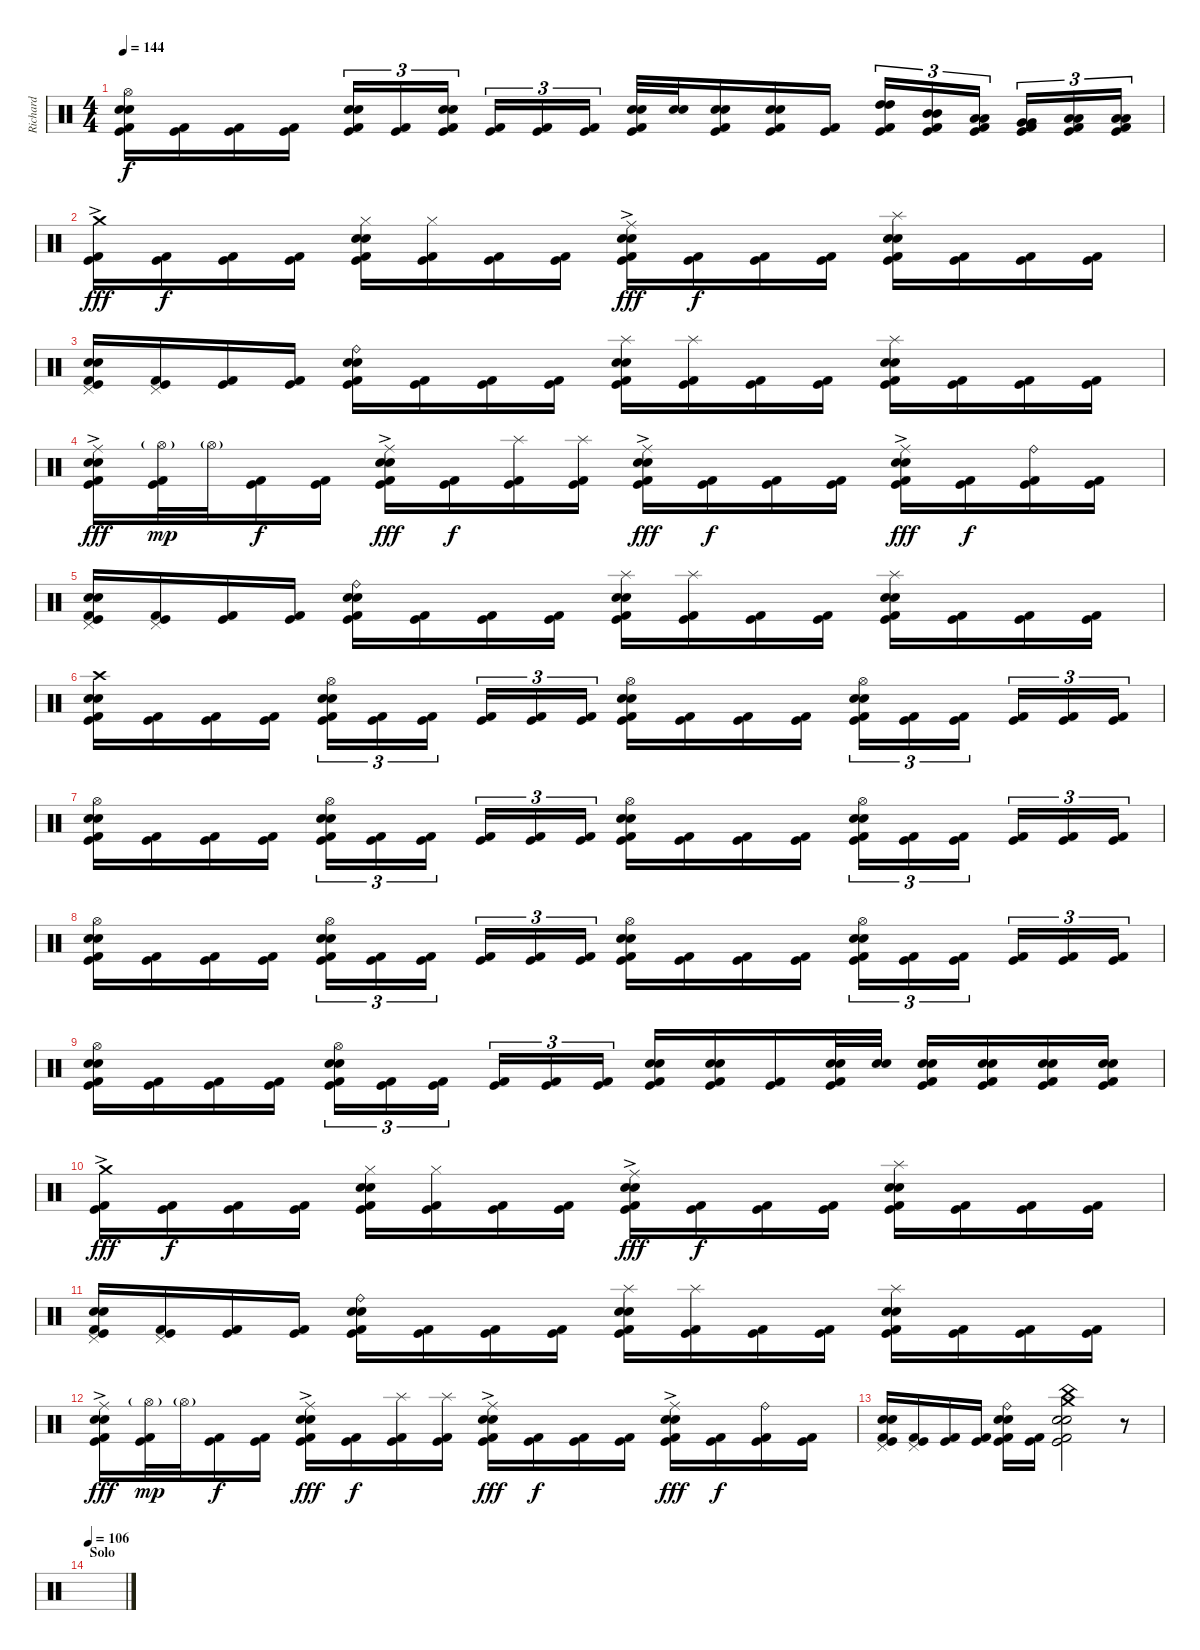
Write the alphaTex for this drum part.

\track ("Richard" "Richard") {instrument percussion}
\staff {score}
\articulation defaults
\ts (4 4)
\tempo 144
\clef neutral
\ks c
("Hi-Hat (open)" "Snare (hit) 2" "Electric Snare (hit)" "Kick (hit) 2" "Kick (hit)").16{dy f} ("Kick (hit) 2" "Kick (hit)").16 ("Kick (hit) 2" "Kick (hit)").16 ("Kick (hit) 2" "Kick (hit)").16 ("Snare (hit) 2" "Electric Snare (hit)" "Kick (hit) 2" "Kick (hit)").16{tu (3 2)} ("Kick (hit) 2" "Kick (hit)").16{tu (3 2)} ("Snare (hit) 2" "Electric Snare (hit)" "Kick (hit) 2" "Kick (hit)").16{tu (3 2)} ("Kick (hit) 2" "Kick (hit)").16{tu (3 2)} ("Kick (hit) 2" "Kick (hit)").16{tu (3 2)} ("Kick (hit) 2" "Kick (hit)").16{tu (3 2)} ("Snare (hit) 2" "Electric Snare (hit)" "Kick (hit) 2" "Kick (hit)").32 ("Snare (hit) 2" "Electric Snare (hit)").32 ("Snare (hit) 2" "Electric Snare (hit)" "Kick (hit) 2" "Kick (hit)").16 ("Snare (hit) 2" "Electric Snare (hit)" "Kick (hit) 2" "Kick (hit)").16 ("Kick (hit) 2" "Kick (hit)").16 ("High Tom (hit)" "High Tom (hit)" "Kick (hit) 2" "Kick (hit)").16{tu (3 2)} ("Mid Tom (hit)" "Mid Tom (hit)" "Kick (hit) 2" "Kick (hit)").16{tu (3 2)} ("Low Tom (hit)" "Low Tom (hit)" "Kick (hit) 2" "Kick (hit)").16{tu (3 2)} ("Very Low Tom (hit)" "Very Low Tom (hit)" "Kick (hit) 2" "Kick (hit)").16{tu (3 2)} ("Low Floor Tom (hit)" "Low Floor Tom (hit)" "Kick (hit) 2" "Kick (hit)").16{tu (3 2)} ("Low Floor Tom (hit)" "Low Floor Tom (hit)" "Kick (hit) 2" "Kick (hit)").16{tu (3 2)} |
("Crash medium (hit)"{ac} "Kick (hit) 2" "Kick (hit)").16{dy fff} ("Kick (hit) 2" "Kick (hit)").16{dy f} ("Kick (hit) 2" "Kick (hit)").16 ("Kick (hit) 2" "Kick (hit)").16 ("Hi-Hat (closed)" "Snare (hit) 2" "Electric Snare (hit)" "Kick (hit) 2" "Kick (hit)").16 ("Hi-Hat (closed)" "Kick (hit) 2" "Kick (hit)").16 ("Kick (hit) 2" "Kick (hit)").16 ("Kick (hit) 2" "Kick (hit)").16 ("Ride (middle)"{ac} "Snare (hit) 2" "Electric Snare (hit)" "Kick (hit) 2" "Kick (hit)").16{dy fff} ("Kick (hit) 2" "Kick (hit)").16{dy f} ("Kick (hit) 2" "Kick (hit)").16 ("Kick (hit) 2" "Kick (hit)").16 ("Splash (hit)" "Snare (hit) 2" "Electric Snare (hit)" "Kick (hit) 2" "Kick (hit)").16 ("Kick (hit) 2" "Kick (hit)").16 ("Kick (hit) 2" "Kick (hit)").16 ("Kick (hit) 2" "Kick (hit)").16 |
("Pedal Hi-Hat (hit)" "Snare (hit) 2" "Electric Snare (hit)" "Kick (hit) 2" "Kick (hit)").16 ("Pedal Hi-Hat (hit)" "Kick (hit) 2" "Kick (hit)").16 ("Kick (hit) 2" "Kick (hit)").16 ("Kick (hit) 2" "Kick (hit)").16 ("Ride (bell)" "Snare (hit) 2" "Electric Snare (hit)" "Kick (hit) 2" "Kick (hit)").16 ("Kick (hit) 2" "Kick (hit)").16 ("Kick (hit) 2" "Kick (hit)").16 ("Kick (hit) 2" "Kick (hit)").16 ("Splash (hit)" "Snare (hit) 2" "Electric Snare (hit)" "Kick (hit) 2" "Kick (hit)").16 ("Splash (hit)" "Kick (hit) 2" "Kick (hit)").16 ("Kick (hit) 2" "Kick (hit)").16 ("Kick (hit) 2" "Kick (hit)").16 ("Splash (hit)" "Snare (hit) 2" "Electric Snare (hit)" "Kick (hit) 2" "Kick (hit)").16 ("Kick (hit) 2" "Kick (hit)").16 ("Kick (hit) 2" "Kick (hit)").16 ("Kick (hit) 2" "Kick (hit)").16 |
("Ride (middle)"{ac} "Snare (hit) 2" "Electric Snare (hit)" "Kick (hit) 2" "Kick (hit)").16{dy fff} ("Hi-Hat (open)"{g} "Kick (hit) 2" "Kick (hit)").32{dy mp} "Hi-Hat (open)"{g}.32 ("Kick (hit) 2" "Kick (hit)").16{dy f} ("Kick (hit) 2" "Kick (hit)").16 ("Ride (middle)"{ac} "Snare (hit) 2" "Electric Snare (hit)" "Kick (hit) 2" "Kick (hit)").16{dy fff} ("Kick (hit) 2" "Kick (hit)").16{dy f} ("Splash (hit)" "Kick (hit) 2" "Kick (hit)").16 ("Splash (hit)" "Kick (hit) 2" "Kick (hit)").16 ("Ride (middle)"{ac} "Snare (hit) 2" "Electric Snare (hit)" "Kick (hit) 2" "Kick (hit)").16{dy fff} ("Kick (hit) 2" "Kick (hit)").16{dy f} ("Kick (hit) 2" "Kick (hit)").16 ("Kick (hit) 2" "Kick (hit)").16 ("Ride (middle)"{ac} "Snare (hit) 2" "Electric Snare (hit)" "Kick (hit) 2" "Kick (hit)").16{dy fff} ("Kick (hit) 2" "Kick (hit)").16{dy f} ("Ride (bell)" "Kick (hit) 2" "Kick (hit)").16 ("Kick (hit) 2" "Kick (hit)").16 |
("Pedal Hi-Hat (hit)" "Snare (hit) 2" "Electric Snare (hit)" "Kick (hit) 2" "Kick (hit)").16 ("Pedal Hi-Hat (hit)" "Kick (hit) 2" "Kick (hit)").16 ("Kick (hit) 2" "Kick (hit)").16 ("Kick (hit) 2" "Kick (hit)").16 ("Ride (bell)" "Snare (hit) 2" "Electric Snare (hit)" "Kick (hit) 2" "Kick (hit)").16 ("Kick (hit) 2" "Kick (hit)").16 ("Kick (hit) 2" "Kick (hit)").16 ("Kick (hit) 2" "Kick (hit)").16 ("Splash (hit)" "Snare (hit) 2" "Electric Snare (hit)" "Kick (hit) 2" "Kick (hit)").16 ("Splash (hit)" "Kick (hit) 2" "Kick (hit)").16 ("Kick (hit) 2" "Kick (hit)").16 ("Kick (hit) 2" "Kick (hit)").16 ("Splash (hit)" "Snare (hit) 2" "Electric Snare (hit)" "Kick (hit) 2" "Kick (hit)").16 ("Kick (hit) 2" "Kick (hit)").16 ("Kick (hit) 2" "Kick (hit)").16 ("Kick (hit) 2" "Kick (hit)").16 |
("Crash high (hit)" "Snare (hit) 2" "Electric Snare (hit)" "Kick (hit) 2" "Kick (hit)").16 ("Kick (hit) 2" "Kick (hit)").16 ("Kick (hit) 2" "Kick (hit)").16 ("Kick (hit) 2" "Kick (hit)").16 ("Hi-Hat (open)" "Snare (hit) 2" "Electric Snare (hit)" "Kick (hit) 2" "Kick (hit)").16{tu (3 2)} ("Kick (hit) 2" "Kick (hit)").16{tu (3 2)} ("Kick (hit) 2" "Kick (hit)").16{tu (3 2)} ("Kick (hit) 2" "Kick (hit)").16{tu (3 2)} ("Kick (hit) 2" "Kick (hit)").16{tu (3 2)} ("Kick (hit) 2" "Kick (hit)").16{tu (3 2)} ("Hi-Hat (open)" "Snare (hit) 2" "Electric Snare (hit)" "Kick (hit) 2" "Kick (hit)").16 ("Kick (hit) 2" "Kick (hit)").16 ("Kick (hit) 2" "Kick (hit)").16 ("Kick (hit) 2" "Kick (hit)").16 ("Hi-Hat (open)" "Snare (hit) 2" "Electric Snare (hit)" "Kick (hit) 2" "Kick (hit)").16{tu (3 2)} ("Kick (hit) 2" "Kick (hit)").16{tu (3 2)} ("Kick (hit) 2" "Kick (hit)").16{tu (3 2)} ("Kick (hit) 2" "Kick (hit)").16{tu (3 2)} ("Kick (hit) 2" "Kick (hit)").16{tu (3 2)} ("Kick (hit) 2" "Kick (hit)").16{tu (3 2)} |
("Hi-Hat (open)" "Snare (hit) 2" "Electric Snare (hit)" "Kick (hit) 2" "Kick (hit)").16 ("Kick (hit) 2" "Kick (hit)").16 ("Kick (hit) 2" "Kick (hit)").16 ("Kick (hit) 2" "Kick (hit)").16 ("Hi-Hat (open)" "Snare (hit) 2" "Electric Snare (hit)" "Kick (hit) 2" "Kick (hit)").16{tu (3 2)} ("Kick (hit) 2" "Kick (hit)").16{tu (3 2)} ("Kick (hit) 2" "Kick (hit)").16{tu (3 2)} ("Kick (hit) 2" "Kick (hit)").16{tu (3 2)} ("Kick (hit) 2" "Kick (hit)").16{tu (3 2)} ("Kick (hit) 2" "Kick (hit)").16{tu (3 2)} ("Hi-Hat (open)" "Snare (hit) 2" "Electric Snare (hit)" "Kick (hit) 2" "Kick (hit)").16 ("Kick (hit) 2" "Kick (hit)").16 ("Kick (hit) 2" "Kick (hit)").16 ("Kick (hit) 2" "Kick (hit)").16 ("Hi-Hat (open)" "Snare (hit) 2" "Electric Snare (hit)" "Kick (hit) 2" "Kick (hit)").16{tu (3 2)} ("Kick (hit) 2" "Kick (hit)").16{tu (3 2)} ("Kick (hit) 2" "Kick (hit)").16{tu (3 2)} ("Kick (hit) 2" "Kick (hit)").16{tu (3 2)} ("Kick (hit) 2" "Kick (hit)").16{tu (3 2)} ("Kick (hit) 2" "Kick (hit)").16{tu (3 2)} |
("Hi-Hat (open)" "Snare (hit) 2" "Electric Snare (hit)" "Kick (hit) 2" "Kick (hit)").16 ("Kick (hit) 2" "Kick (hit)").16 ("Kick (hit) 2" "Kick (hit)").16 ("Kick (hit) 2" "Kick (hit)").16 ("Hi-Hat (open)" "Snare (hit) 2" "Electric Snare (hit)" "Kick (hit) 2" "Kick (hit)").16{tu (3 2)} ("Kick (hit) 2" "Kick (hit)").16{tu (3 2)} ("Kick (hit) 2" "Kick (hit)").16{tu (3 2)} ("Kick (hit) 2" "Kick (hit)").16{tu (3 2)} ("Kick (hit) 2" "Kick (hit)").16{tu (3 2)} ("Kick (hit) 2" "Kick (hit)").16{tu (3 2)} ("Hi-Hat (open)" "Snare (hit) 2" "Electric Snare (hit)" "Kick (hit) 2" "Kick (hit)").16 ("Kick (hit) 2" "Kick (hit)").16 ("Kick (hit) 2" "Kick (hit)").16 ("Kick (hit) 2" "Kick (hit)").16 ("Hi-Hat (open)" "Snare (hit) 2" "Electric Snare (hit)" "Kick (hit) 2" "Kick (hit)").16{tu (3 2)} ("Kick (hit) 2" "Kick (hit)").16{tu (3 2)} ("Kick (hit) 2" "Kick (hit)").16{tu (3 2)} ("Kick (hit) 2" "Kick (hit)").16{tu (3 2)} ("Kick (hit) 2" "Kick (hit)").16{tu (3 2)} ("Kick (hit) 2" "Kick (hit)").16{tu (3 2)} |
("Hi-Hat (open)" "Snare (hit) 2" "Electric Snare (hit)" "Kick (hit) 2" "Kick (hit)").16 ("Kick (hit) 2" "Kick (hit)").16 ("Kick (hit) 2" "Kick (hit)").16 ("Kick (hit) 2" "Kick (hit)").16 ("Hi-Hat (open)" "Snare (hit) 2" "Electric Snare (hit)" "Kick (hit) 2" "Kick (hit)").16{tu (3 2)} ("Kick (hit) 2" "Kick (hit)").16{tu (3 2)} ("Kick (hit) 2" "Kick (hit)").16{tu (3 2)} ("Kick (hit) 2" "Kick (hit)").16{tu (3 2)} ("Kick (hit) 2" "Kick (hit)").16{tu (3 2)} ("Kick (hit) 2" "Kick (hit)").16{tu (3 2)} ("Snare (hit) 2" "Electric Snare (hit)" "Kick (hit) 2" "Kick (hit)").16 ("Snare (hit) 2" "Electric Snare (hit)" "Kick (hit) 2" "Kick (hit)").16 ("Kick (hit) 2" "Kick (hit)").16 ("Snare (hit) 2" "Electric Snare (hit)" "Kick (hit) 2" "Kick (hit)").32 ("Snare (hit) 2" "Electric Snare (hit)").32 ("Snare (hit) 2" "Electric Snare (hit)" "Kick (hit) 2" "Kick (hit)").16 ("Snare (hit) 2" "Electric Snare (hit)" "Kick (hit) 2" "Kick (hit)").16 ("Snare (hit) 2" "Electric Snare (hit)" "Kick (hit) 2" "Kick (hit)").16 ("Snare (hit) 2" "Electric Snare (hit)" "Kick (hit) 2" "Kick (hit)").16 |
("Crash medium (hit)"{ac} "Kick (hit) 2" "Kick (hit)").16{dy fff} ("Kick (hit) 2" "Kick (hit)").16{dy f} ("Kick (hit) 2" "Kick (hit)").16 ("Kick (hit) 2" "Kick (hit)").16 ("Hi-Hat (closed)" "Snare (hit) 2" "Electric Snare (hit)" "Kick (hit) 2" "Kick (hit)").16 ("Hi-Hat (closed)" "Kick (hit) 2" "Kick (hit)").16 ("Kick (hit) 2" "Kick (hit)").16 ("Kick (hit) 2" "Kick (hit)").16 ("Ride (middle)"{ac} "Snare (hit) 2" "Electric Snare (hit)" "Kick (hit) 2" "Kick (hit)").16{dy fff} ("Kick (hit) 2" "Kick (hit)").16{dy f} ("Kick (hit) 2" "Kick (hit)").16 ("Kick (hit) 2" "Kick (hit)").16 ("Splash (hit)" "Snare (hit) 2" "Electric Snare (hit)" "Kick (hit) 2" "Kick (hit)").16 ("Kick (hit) 2" "Kick (hit)").16 ("Kick (hit) 2" "Kick (hit)").16 ("Kick (hit) 2" "Kick (hit)").16 |
("Pedal Hi-Hat (hit)" "Snare (hit) 2" "Electric Snare (hit)" "Kick (hit) 2" "Kick (hit)").16 ("Pedal Hi-Hat (hit)" "Kick (hit) 2" "Kick (hit)").16 ("Kick (hit) 2" "Kick (hit)").16 ("Kick (hit) 2" "Kick (hit)").16 ("Ride (bell)" "Snare (hit) 2" "Electric Snare (hit)" "Kick (hit) 2" "Kick (hit)").16 ("Kick (hit) 2" "Kick (hit)").16 ("Kick (hit) 2" "Kick (hit)").16 ("Kick (hit) 2" "Kick (hit)").16 ("Splash (hit)" "Snare (hit) 2" "Electric Snare (hit)" "Kick (hit) 2" "Kick (hit)").16 ("Splash (hit)" "Kick (hit) 2" "Kick (hit)").16 ("Kick (hit) 2" "Kick (hit)").16 ("Kick (hit) 2" "Kick (hit)").16 ("Splash (hit)" "Snare (hit) 2" "Electric Snare (hit)" "Kick (hit) 2" "Kick (hit)").16 ("Kick (hit) 2" "Kick (hit)").16 ("Kick (hit) 2" "Kick (hit)").16 ("Kick (hit) 2" "Kick (hit)").16 |
("Ride (middle)"{ac} "Snare (hit) 2" "Electric Snare (hit)" "Kick (hit) 2" "Kick (hit)").16{dy fff} ("Hi-Hat (open)"{g} "Kick (hit) 2" "Kick (hit)").32{dy mp} "Hi-Hat (open)"{g}.32 ("Kick (hit) 2" "Kick (hit)").16{dy f} ("Kick (hit) 2" "Kick (hit)").16 ("Ride (middle)"{ac} "Snare (hit) 2" "Electric Snare (hit)" "Kick (hit) 2" "Kick (hit)").16{dy fff} ("Kick (hit) 2" "Kick (hit)").16{dy f} ("Splash (hit)" "Kick (hit) 2" "Kick (hit)").16 ("Splash (hit)" "Kick (hit) 2" "Kick (hit)").16 ("Ride (middle)"{ac} "Snare (hit) 2" "Electric Snare (hit)" "Kick (hit) 2" "Kick (hit)").16{dy fff} ("Kick (hit) 2" "Kick (hit)").16{dy f} ("Kick (hit) 2" "Kick (hit)").16 ("Kick (hit) 2" "Kick (hit)").16 ("Ride (middle)"{ac} "Snare (hit) 2" "Electric Snare (hit)" "Kick (hit) 2" "Kick (hit)").16{dy fff} ("Kick (hit) 2" "Kick (hit)").16{dy f} ("Ride (bell)" "Kick (hit) 2" "Kick (hit)").16 ("Kick (hit) 2" "Kick (hit)").16 |
("Pedal Hi-Hat (hit)" "Snare (hit) 2" "Electric Snare (hit)" "Kick (hit) 2" "Kick (hit)").16 ("Pedal Hi-Hat (hit)" "Kick (hit) 2" "Kick (hit)").16 ("Kick (hit) 2" "Kick (hit)").16 ("Kick (hit) 2" "Kick (hit)").16 ("Ride (bell)" "Snare (hit) 2" "Electric Snare (hit)" "Kick (hit) 2" "Kick (hit)").16 ("Kick (hit) 2" "Kick (hit)").16 ("Crash medium (hit)" "China (hit)" "Snare (hit) 2" "Electric Snare (hit)" "Kick (hit) 2" "Kick (hit)").2 r.8 |
\section ("" "Solo")
\tempo 106
